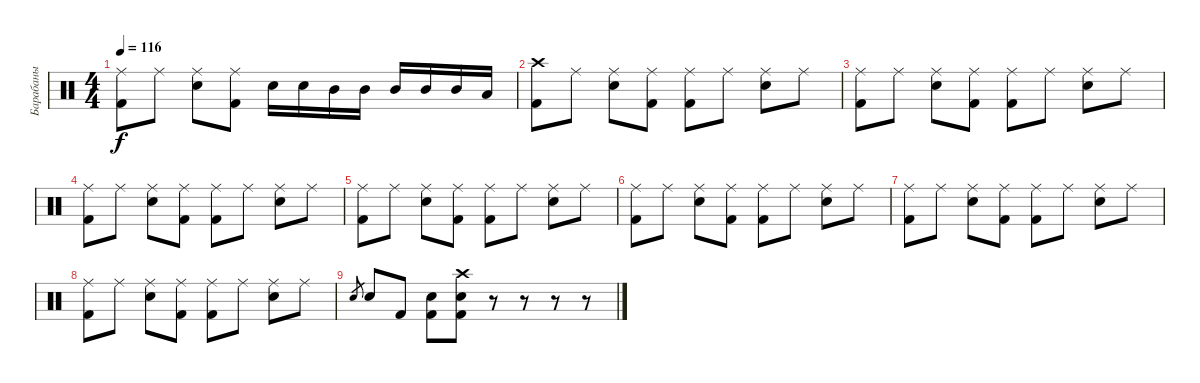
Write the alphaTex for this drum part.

\track ("Барабаны" "Барабаны") {instrument percussion}
\staff {score}
\articulation defaults
\ts (4 4)
\tempo 116
\clef neutral
\ks c
("Ride (middle)" "Kick (hit) 2").8{dy f} "Ride (middle)".8 ("Ride (middle)" "Snare (hit) 2").8 ("Ride (middle)" "Kick (hit) 2").8 "Snare (hit) 2".16 "Snare (hit) 2".16 "Mid Tom (hit)".16 "Mid Tom (hit)".16 "Mid Tom (hit)".16 "Mid Tom (hit)".16 "Mid Tom (hit)".16 "Low Tom (hit)".16 |
("Crash high (hit)" "Kick (hit) 2").8 "Ride (middle)".8 ("Ride (middle)" "Snare (hit) 2").8 ("Ride (middle)" "Kick (hit) 2").8 ("Ride (middle)" "Kick (hit) 2").8 "Ride (middle)".8 ("Ride (middle)" "Snare (hit) 2").8 "Ride (middle)".8 |
("Ride (middle)" "Kick (hit) 2").8 "Ride (middle)".8 ("Ride (middle)" "Snare (hit) 2").8 ("Ride (middle)" "Kick (hit) 2").8 ("Ride (middle)" "Kick (hit) 2").8 "Ride (middle)".8 ("Ride (middle)" "Snare (hit) 2").8 "Ride (middle)".8 |
("Ride (middle)" "Kick (hit) 2").8 "Ride (middle)".8 ("Ride (middle)" "Snare (hit) 2").8 ("Ride (middle)" "Kick (hit) 2").8 ("Ride (middle)" "Kick (hit) 2").8 "Ride (middle)".8 ("Ride (middle)" "Snare (hit) 2").8 "Ride (middle)".8 |
("Ride (middle)" "Kick (hit) 2").8 "Ride (middle)".8 ("Ride (middle)" "Snare (hit) 2").8 ("Ride (middle)" "Kick (hit) 2").8 ("Ride (middle)" "Kick (hit) 2").8 "Ride (middle)".8 ("Ride (middle)" "Snare (hit) 2").8 "Ride (middle)".8 |
("Ride (middle)" "Kick (hit) 2").8 "Ride (middle)".8 ("Ride (middle)" "Snare (hit) 2").8 ("Ride (middle)" "Kick (hit) 2").8 ("Ride (middle)" "Kick (hit) 2").8 "Ride (middle)".8 ("Ride (middle)" "Snare (hit) 2").8 "Ride (middle)".8 |
("Ride (middle)" "Kick (hit) 2").8 "Ride (middle)".8 ("Ride (middle)" "Snare (hit) 2").8 ("Ride (middle)" "Kick (hit) 2").8 ("Ride (middle)" "Kick (hit) 2").8 "Ride (middle)".8 ("Ride (middle)" "Snare (hit) 2").8 "Ride (middle)".8 |
("Ride (middle)" "Kick (hit) 2").8 "Ride (middle)".8 ("Ride (middle)" "Snare (hit) 2").8 ("Ride (middle)" "Kick (hit) 2").8 ("Ride (middle)" "Kick (hit) 2").8 "Ride (middle)".8 ("Ride (middle)" "Snare (hit) 2").8 "Ride (middle)".8 |
"Snare (hit) 2".8{gr} "Snare (hit) 2".8 "Kick (hit) 2".8 ("Snare (hit) 2" "Kick (hit) 2").8 ("Crash high (hit)" "Snare (hit) 2" "Kick (hit) 2").8 r.8 r.8 r.8 r.8
